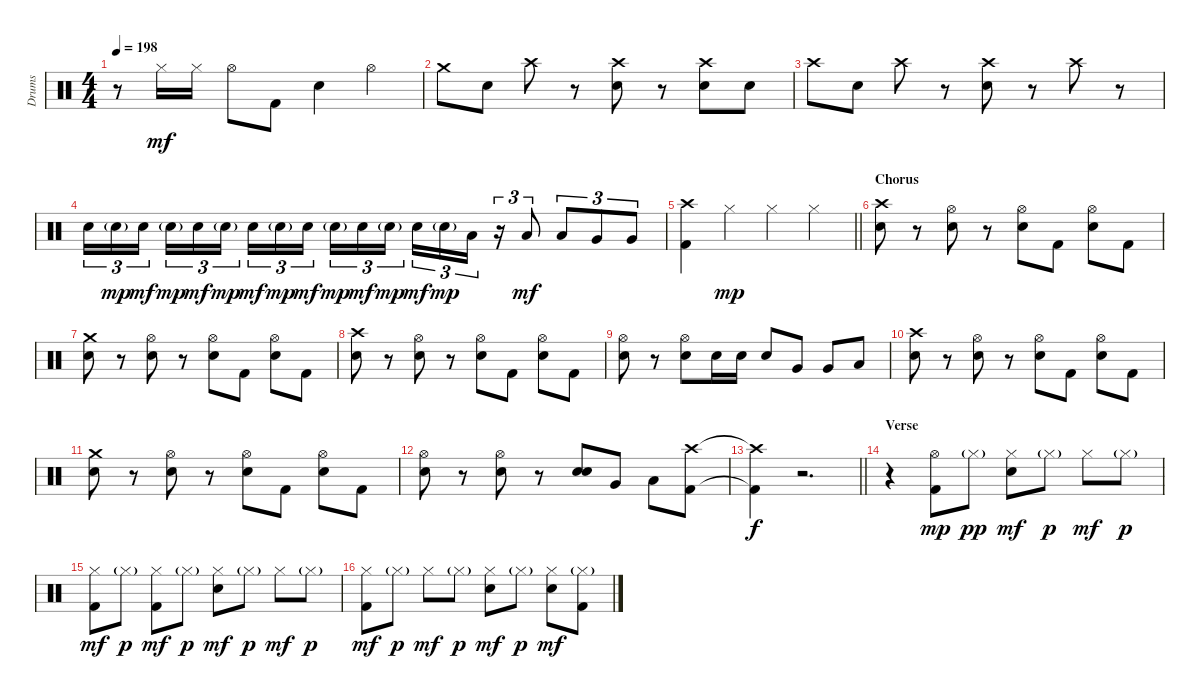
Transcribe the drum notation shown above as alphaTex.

\track ("Drums" "Drums") {instrument percussion}
\staff {score}
\articulation defaults
\ts (4 4)
\tempo 198
\clef neutral
\ks c
r.8{dy mf} "Hi-Hat (closed)".16 "Hi-Hat (closed)".16 "Hi-Hat (open)".8 "Kick (hit) 2".8 "Snare (hit) 2".4 "Hi-Hat (open)".4 |
"Crash medium (hit)".8 "Snare (hit) 2".8 "Crash high (hit)".8 r.8 ("Crash high (hit)" "Snare (hit) 2").8 r.8 ("Crash high (hit)" "Snare (hit) 2").8 "Snare (hit) 2".8 |
"Crash high (hit)".8 "Snare (hit) 2".8 "Crash high (hit)".8 r.8 ("Crash high (hit)" "Snare (hit) 2").8 r.8 "Crash high (hit)".8 r.8 |
"Snare (hit) 2".16{tu (3 2)} "Snare (hit) 2"{g}.16{tu (3 2) dy mp} "Snare (hit) 2".16{tu (3 2) dy mf beam splitsecondary} "Snare (hit) 2"{g}.16{tu (3 2) dy mp} "Snare (hit) 2".16{tu (3 2) dy mf} "Snare (hit) 2"{g}.16{tu (3 2) dy mp} "Snare (hit) 2".16{tu (3 2) dy mf} "Snare (hit) 2"{g}.16{tu (3 2) dy mp} "Snare (hit) 2".16{tu (3 2) dy mf beam splitsecondary} "Snare (hit) 2"{g}.16{tu (3 2) dy mp} "Snare (hit) 2".16{tu (3 2) dy mf} "Snare (hit) 2"{g}.16{tu (3 2) dy mp} "Snare (hit) 2".16{tu (3 2) dy mf} "Snare (hit) 2"{g}.16{tu (3 2) dy mp} "Low Floor Tom (hit)".16{tu (3 2)} r.16{tu (3 2)} "Low Floor Tom (hit)".8{tu (3 2) dy mf} "Low Floor Tom (hit)".8{tu (3 2)} "Very Low Tom (hit)".8{tu (3 2)} "Very Low Tom (hit)".8{tu (3 2)} |
\barLineRight lightlight
("Crash high (hit)" "Kick (hit) 2").4 "Hi-Hat (closed)".4{dy mp} "Hi-Hat (closed)".4 "Hi-Hat (closed)".4 |
\section ("" "Chorus")
("Crash high (hit)" "Snare (hit) 2").8 r.8 ("Hi-Hat (open)" "Snare (hit) 2").8 r.8 ("Hi-Hat (open)" "Snare (hit) 2").8 "Kick (hit) 2".8 ("Hi-Hat (open)" "Snare (hit) 2").8 "Kick (hit) 2".8 |
("Crash medium (hit)" "Snare (hit) 2").8 r.8 ("Hi-Hat (open)" "Snare (hit) 2").8 r.8 ("Hi-Hat (open)" "Snare (hit) 2").8 "Kick (hit) 2".8 ("Hi-Hat (open)" "Snare (hit) 2").8 "Kick (hit) 2".8 |
("Crash high (hit)" "Snare (hit) 2").8 r.8 ("Hi-Hat (open)" "Snare (hit) 2").8 r.8 ("Hi-Hat (open)" "Snare (hit) 2").8 "Kick (hit) 2".8 ("Hi-Hat (open)" "Snare (hit) 2").8 "Kick (hit) 2".8 |
("Hi-Hat (open)" "Snare (hit) 2").8 r.8 ("Hi-Hat (open)" "Snare (hit) 2").8 "Snare (hit) 2".16 "Snare (hit) 2".16 "Snare (hit) 2".8 "Very Low Tom (hit)".8 "Very Low Tom (hit)".8 "Low Floor Tom (hit)".8 |
("Crash high (hit)" "Snare (hit) 2").8 r.8 ("Hi-Hat (open)" "Snare (hit) 2").8 r.8 ("Hi-Hat (open)" "Snare (hit) 2").8 "Kick (hit) 2".8 ("Hi-Hat (open)" "Snare (hit) 2").8 "Kick (hit) 2".8 |
("Crash medium (hit)" "Snare (hit) 2").8 r.8 ("Hi-Hat (open)" "Snare (hit) 2").8 r.8 ("Hi-Hat (open)" "Snare (hit) 2").8 "Kick (hit) 2".8 ("Hi-Hat (open)" "Snare (hit) 2").8 "Kick (hit) 2".8 |
("Hi-Hat (open)" "Snare (hit) 2").8 r.8 ("Hi-Hat (open)" "Snare (hit) 2").8 r.8 ("Electric Snare (hit)" "Snare (hit) 2").8 "Very Low Tom (hit)".8 "Low Floor Tom (hit)".8 ("Crash high (hit)" "Kick (hit) 2").8 |
\barLineRight lightlight
("Crash high (hit)"{t} "Kick (hit) 2"{t}).4{dy f} r.2{d} |
\section ("" "Verse")
r.4 ("Hi-Hat (open)" "Kick (hit) 2").8{dy mp} "Hi-Hat (closed)"{g}.8{dy pp} ("Hi-Hat (closed)" "Snare (hit) 2").8{dy mf} "Hi-Hat (closed)"{g}.8{dy p} "Hi-Hat (closed)".8{dy mf} "Hi-Hat (closed)"{g}.8{dy p} |
("Hi-Hat (closed)" "Kick (hit) 2").8{dy mf} "Hi-Hat (closed)"{g}.8{dy p} ("Hi-Hat (closed)" "Kick (hit) 2").8{dy mf} "Hi-Hat (closed)"{g}.8{dy p} ("Hi-Hat (closed)" "Snare (hit) 2").8{dy mf} "Hi-Hat (closed)"{g}.8{dy p} "Hi-Hat (closed)".8{dy mf} "Hi-Hat (closed)"{g}.8{dy p} |
("Hi-Hat (closed)" "Kick (hit) 2").8{dy mf} "Hi-Hat (closed)"{g}.8{dy p} "Hi-Hat (closed)".8{dy mf} "Hi-Hat (closed)"{g}.8{dy p} ("Hi-Hat (closed)" "Snare (hit) 2").8{dy mf} "Hi-Hat (closed)"{g}.8{dy p} ("Hi-Hat (closed)" "Snare (hit) 2").8{dy mf} ("Hi-Hat (closed)"{g} "Kick (hit) 2").8
